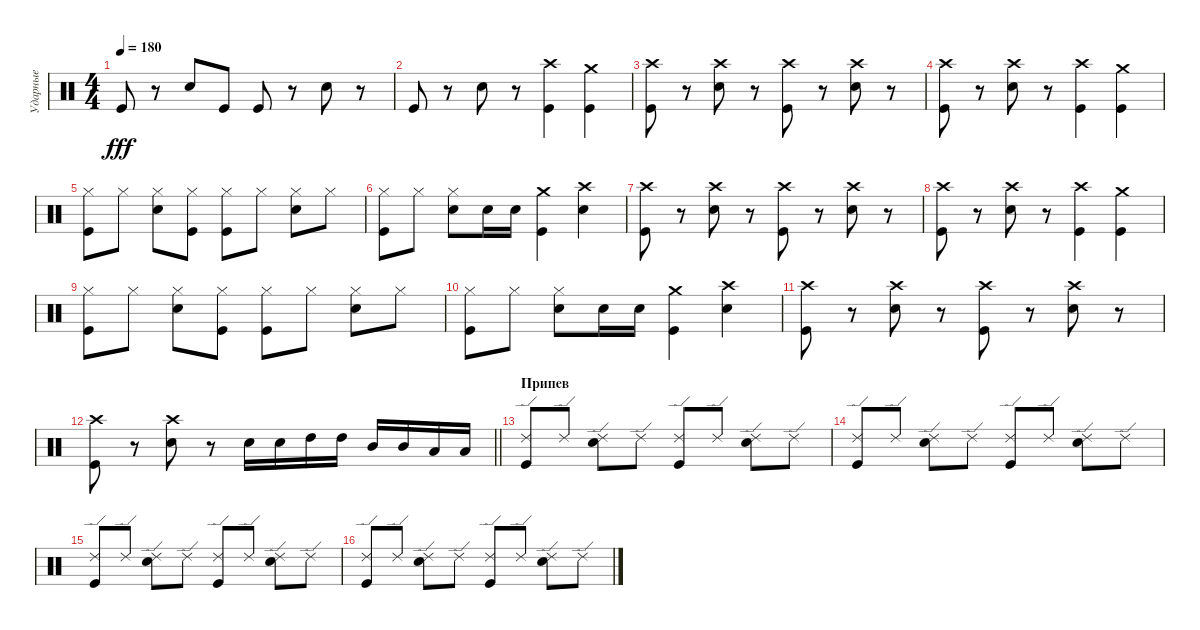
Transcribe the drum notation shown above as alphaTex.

\track ("Ударные" "Ударные") {instrument percussion}
\staff {score}
\articulation defaults
\ts (4 4)
\tempo 180
\clef neutral
\ks c "Kick (hit)".8{dy fff}
r.8 "Electric Snare (hit)".8 "Kick (hit)".8 "Kick (hit)".8 r.8 "Electric Snare (hit)".8 r.8 |
"Kick (hit)".8 r.8 "Electric Snare (hit)".8 r.8 ("Crash high (hit)" "Kick (hit)").4 ("Crash medium (hit)" "Kick (hit)").4 |
("Crash high (hit)" "Kick (hit)").8 r.8 ("Crash high (hit)" "Electric Snare (hit)").8 r.8 ("Crash high (hit)" "Kick (hit)").8 r.8 ("Crash high (hit)" "Electric Snare (hit)").8 r.8 |
("Kick (hit)" "Crash high (hit)").8 r.8 ("Electric Snare (hit)" "Crash high (hit)").8 r.8 ("Crash high (hit)" "Kick (hit)").4 ("Kick (hit)" "Crash medium (hit)").4 |
("Hi-Hat (closed)" "Kick (hit)").8 "Hi-Hat (closed)".8 ("Hi-Hat (closed)" "Electric Snare (hit)").8 ("Hi-Hat (closed)" "Kick (hit)").8 ("Hi-Hat (closed)" "Kick (hit)").8 "Hi-Hat (closed)".8 ("Hi-Hat (closed)" "Electric Snare (hit)").8 "Hi-Hat (closed)".8 |
("Hi-Hat (closed)" "Kick (hit)").8 "Hi-Hat (closed)".8 ("Hi-Hat (closed)" "Electric Snare (hit)").8 "Electric Snare (hit)".16 "Electric Snare (hit)".16 ("Crash medium (hit)" "Kick (hit)").4 ("Crash high (hit)" "Electric Snare (hit)").4 |
("Crash high (hit)" "Kick (hit)").8 r.8 ("Crash high (hit)" "Electric Snare (hit)").8 r.8 ("Crash high (hit)" "Kick (hit)").8 r.8 ("Crash high (hit)" "Electric Snare (hit)").8 r.8 |
("Kick (hit)" "Crash high (hit)").8 r.8 ("Electric Snare (hit)" "Crash high (hit)").8 r.8 ("Crash high (hit)" "Kick (hit)").4 ("Kick (hit)" "Crash medium (hit)").4 |
("Hi-Hat (closed)" "Kick (hit)").8 "Hi-Hat (closed)".8 ("Hi-Hat (closed)" "Electric Snare (hit)").8 ("Hi-Hat (closed)" "Kick (hit)").8 ("Hi-Hat (closed)" "Kick (hit)").8 "Hi-Hat (closed)".8 ("Hi-Hat (closed)" "Electric Snare (hit)").8 "Hi-Hat (closed)".8 |
("Hi-Hat (closed)" "Kick (hit)").8 "Hi-Hat (closed)".8 ("Hi-Hat (closed)" "Electric Snare (hit)").8 "Electric Snare (hit)".16 "Electric Snare (hit)".16 ("Crash medium (hit)" "Kick (hit)").4 ("Crash high (hit)" "Electric Snare (hit)").4 |
("Crash high (hit)" "Kick (hit)").8 r.8 ("Crash high (hit)" "Electric Snare (hit)").8 r.8 ("Crash high (hit)" "Kick (hit)").8 r.8 ("Crash high (hit)" "Electric Snare (hit)").8 r.8 |
\barLineRight lightlight
("Kick (hit)" "Crash high (hit)").8 r.8 ("Electric Snare (hit)" "Crash high (hit)").8 r.8 "Electric Snare (hit)".16 "Electric Snare (hit)".16 "High Tom (hit)".16 "High Tom (hit)".16 "Mid Tom (hit)".16 "Mid Tom (hit)".16 "Low Tom (hit)".16 "Low Tom (hit)".16 |
\section ("" "Припев")
("Ride (edge) 2" "Kick (hit)").8 "Ride (edge) 2".8 ("Ride (edge) 2" "Electric Snare (hit)").8 "Ride (edge) 2".8 ("Ride (edge) 2" "Kick (hit)").8 "Ride (edge) 2".8 ("Ride (edge) 2" "Electric Snare (hit)").8 "Ride (edge) 2".8 |
("Ride (edge) 2" "Kick (hit)").8 "Ride (edge) 2".8 ("Ride (edge) 2" "Electric Snare (hit)").8 "Ride (edge) 2".8 ("Ride (edge) 2" "Kick (hit)").8 "Ride (edge) 2".8 ("Ride (edge) 2" "Electric Snare (hit)").8 "Ride (edge) 2".8 |
("Ride (edge) 2" "Kick (hit)").8 "Ride (edge) 2".8 ("Ride (edge) 2" "Electric Snare (hit)").8 "Ride (edge) 2".8 ("Ride (edge) 2" "Kick (hit)").8 "Ride (edge) 2".8 ("Ride (edge) 2" "Electric Snare (hit)").8 "Ride (edge) 2".8 |
("Ride (edge) 2" "Kick (hit)").8 "Ride (edge) 2".8 ("Ride (edge) 2" "Electric Snare (hit)").8 "Ride (edge) 2".8 ("Ride (edge) 2" "Kick (hit)").8 "Ride (edge) 2".8 ("Ride (edge) 2" "Electric Snare (hit)").8 "Ride (edge) 2".8
